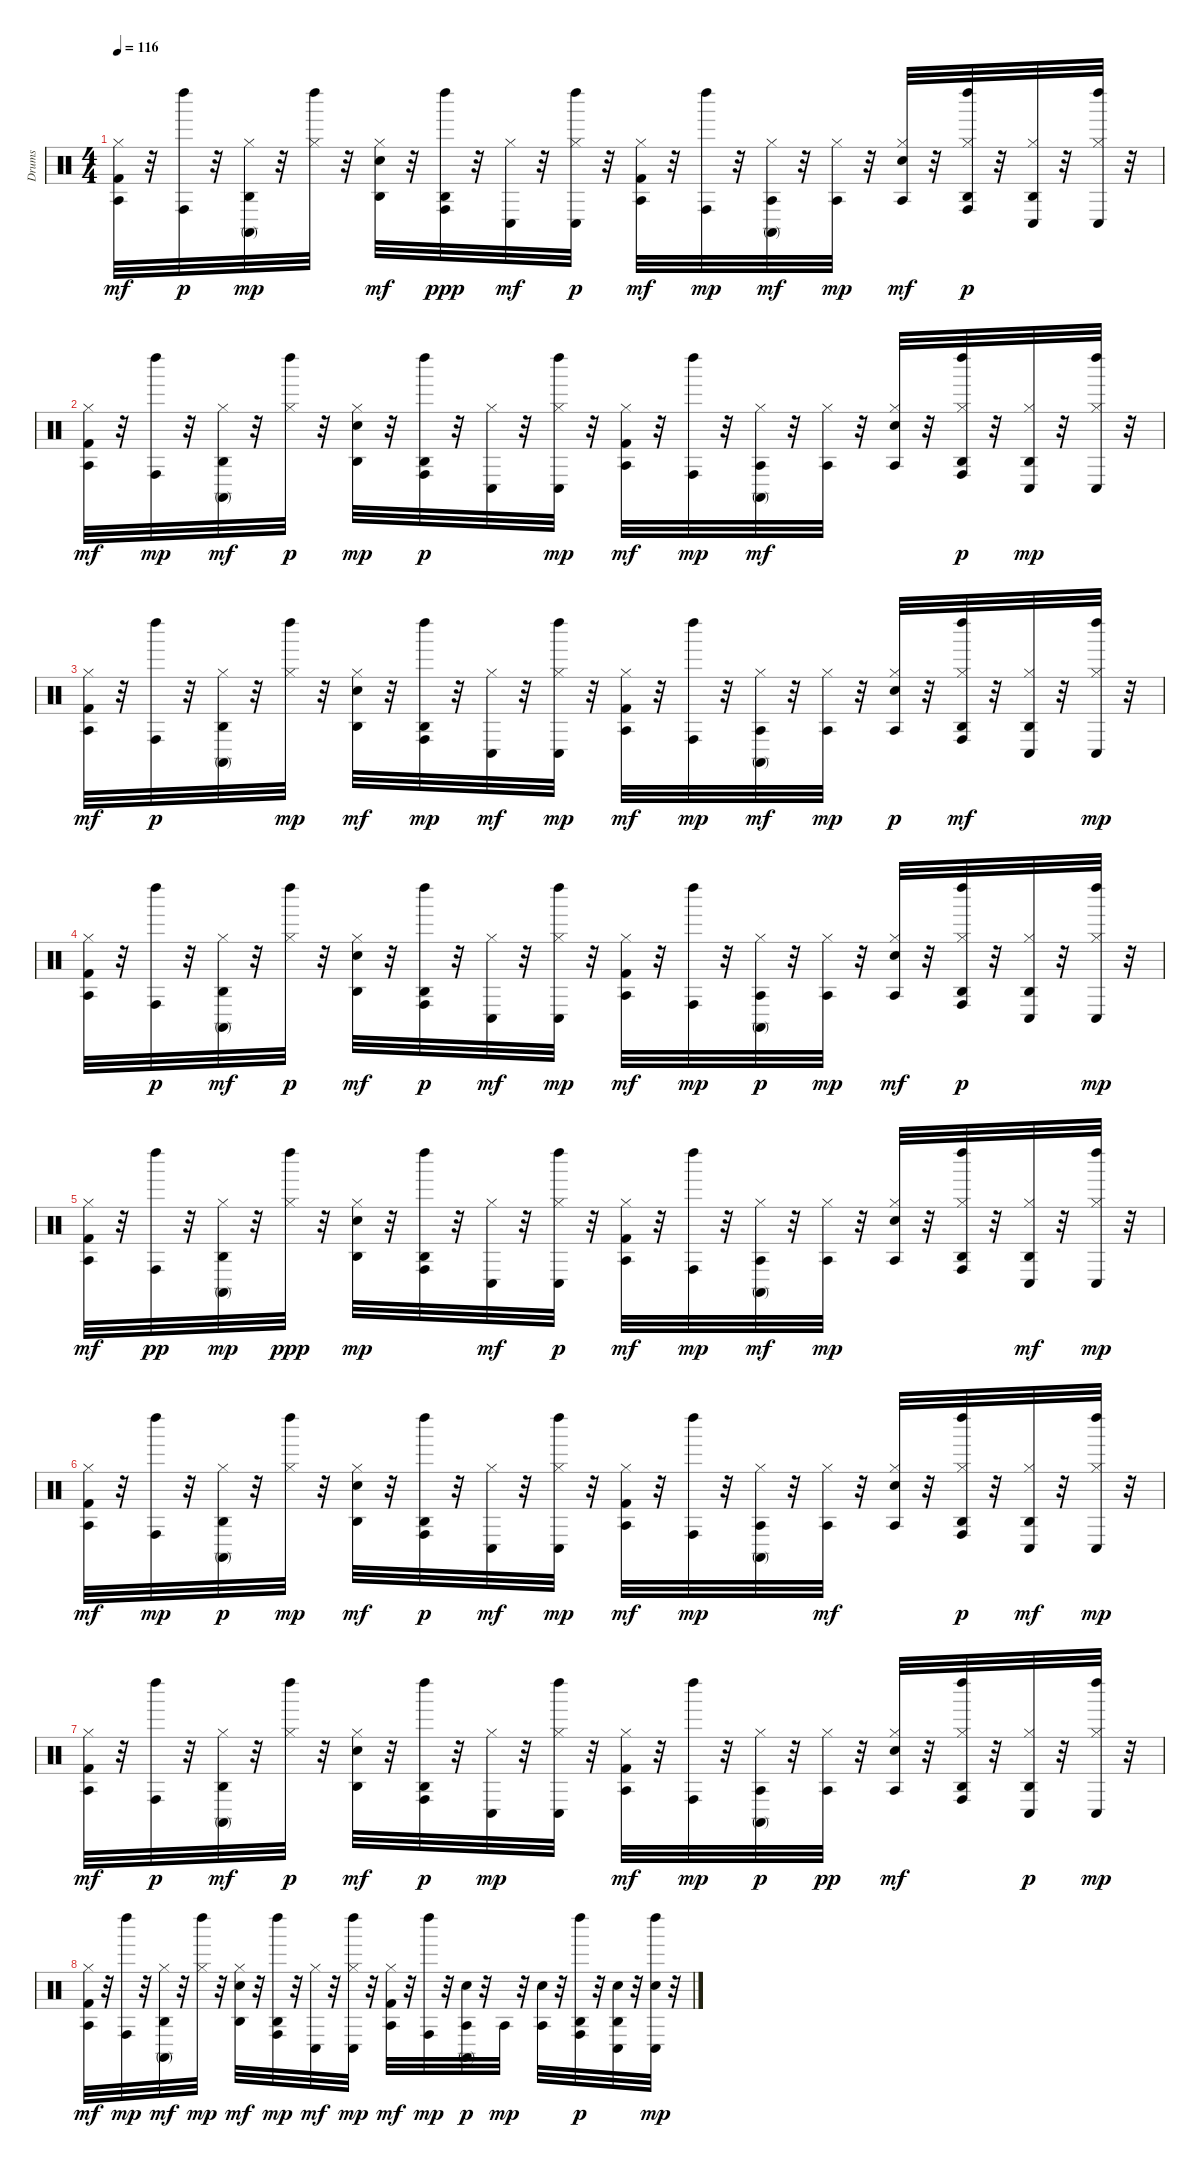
\track ("Drums" "Drums") {instrument percussion}
\staff {score}
\articulation defaults
\ts (4 4)
\tempo 116
\clef neutral
\ks c
("Hi-Hat (closed)" "Agogo tow (hit)" "Kick (hit) 2").32{dy mf} r.32 ("Left Maraca (hit)" "Conga high (hit)").32{dy p} r.32 ("Agogo high (hit)" "Hi-Hat (closed)" "Conga high (mute)").32{dy mp} r.32 ("Left Maraca (hit)" "Hi-Hat (closed)").32 r.32 ("Agogo high (hit)" "Snare (hit) 2" "Hi-Hat (closed)").32{dy mf} r.32 ("Agogo high (hit)" "Conga high (hit)" "Left Maraca (hit)").32{dy ppp} r.32 ("Conga low (hit)" "Hi-Hat (closed)").32{dy mf} r.32 ("Conga low (hit)" "Hi-Hat (closed)" "Left Maraca (hit)").32{dy p} r.32 ("Kick (hit) 2" "Agogo tow (hit)" "Hi-Hat (closed)").32{dy mf} r.32 ("Left Maraca (hit)" "Conga high (hit)").32{dy mp} r.32 ("Conga high (mute)" "Hi-Hat (closed)" "Agogo tow (hit)").32{dy mf} r.32 ("Hi-Hat (closed)" "Agogo tow (hit)").32{dy mp} r.32 ("Agogo tow (hit)" "Snare (hit) 2" "Hi-Hat (closed)").32{dy mf} r.32 ("Agogo high (hit)" "Hi-Hat (closed)" "Conga high (hit)" "Left Maraca (hit)").32{dy p} r.32 ("Agogo high (hit)" "Hi-Hat (closed)" "Conga low (hit)").32 r.32 ("Hi-Hat (closed)" "Conga low (hit)" "Left Maraca (hit)").32 r.32 |
("Kick (hit) 2" "Agogo tow (hit)" "Hi-Hat (closed)").32{dy mf} r.32 ("Left Maraca (hit)" "Conga high (hit)").32{dy mp} r.32 ("Agogo high (hit)" "Conga high (mute)" "Hi-Hat (closed)").32{dy mf} r.32 ("Hi-Hat (closed)" "Left Maraca (hit)").32{dy p} r.32 ("Hi-Hat (closed)" "Snare (hit) 2" "Agogo high (hit)").32{dy mp} r.32 ("Conga high (hit)" "Agogo high (hit)" "Left Maraca (hit)").32{dy p} r.32 ("Hi-Hat (closed)" "Conga low (hit)").32 r.32 ("Left Maraca (hit)" "Conga low (hit)" "Hi-Hat (closed)").32{dy mp} r.32 ("Kick (hit) 2" "Hi-Hat (closed)" "Agogo tow (hit)").32{dy mf} r.32 ("Left Maraca (hit)" "Conga high (hit)").32{dy mp} r.32 ("Agogo tow (hit)" "Conga high (mute)" "Hi-Hat (closed)").32{dy mf} r.32 ("Hi-Hat (closed)" "Agogo tow (hit)").32 r.32 ("Hi-Hat (closed)" "Agogo tow (hit)" "Snare (hit) 2").32 r.32 ("Agogo high (hit)" "Hi-Hat (closed)" "Left Maraca (hit)" "Conga high (hit)").32{dy p} r.32 ("Hi-Hat (closed)" "Agogo high (hit)" "Conga low (hit)").32{dy mp} r.32 ("Conga low (hit)" "Left Maraca (hit)" "Hi-Hat (closed)").32 r.32 |
("Kick (hit) 2" "Agogo tow (hit)" "Hi-Hat (closed)").32{dy mf} r.32 ("Conga high (hit)" "Left Maraca (hit)").32{dy p} r.32 ("Hi-Hat (closed)" "Agogo high (hit)" "Conga high (mute)").32 r.32 ("Left Maraca (hit)" "Hi-Hat (closed)").32{dy mp} r.32 ("Agogo high (hit)" "Snare (hit) 2" "Hi-Hat (closed)").32{dy mf} r.32 ("Left Maraca (hit)" "Agogo high (hit)" "Conga high (hit)").32{dy mp} r.32 ("Conga low (hit)" "Hi-Hat (closed)").32{dy mf} r.32 ("Conga low (hit)" "Left Maraca (hit)" "Hi-Hat (closed)").32{dy mp} r.32 ("Agogo tow (hit)" "Kick (hit) 2" "Hi-Hat (closed)").32{dy mf} r.32 ("Conga high (hit)" "Left Maraca (hit)").32{dy mp} r.32 ("Conga high (mute)" "Agogo tow (hit)" "Hi-Hat (closed)").32{dy mf} r.32 ("Agogo tow (hit)" "Hi-Hat (closed)").32{dy mp} r.32 ("Hi-Hat (closed)" "Agogo tow (hit)" "Snare (hit) 2").32{dy p} r.32 ("Left Maraca (hit)" "Conga high (hit)" "Hi-Hat (closed)" "Agogo high (hit)").32{dy mf} r.32 ("Agogo high (hit)" "Conga low (hit)" "Hi-Hat (closed)").32 r.32 ("Hi-Hat (closed)" "Conga low (hit)" "Left Maraca (hit)").32{dy mp} r.32 |
("Hi-Hat (closed)" "Kick (hit) 2" "Agogo tow (hit)").32 r.32 ("Conga high (hit)" "Left Maraca (hit)").32{dy p} r.32 ("Agogo high (hit)" "Conga high (mute)" "Hi-Hat (closed)").32{dy mf} r.32 ("Hi-Hat (closed)" "Left Maraca (hit)").32{dy p} r.32 ("Snare (hit) 2" "Agogo high (hit)" "Hi-Hat (closed)").32{dy mf} r.32 ("Agogo high (hit)" "Conga high (hit)" "Left Maraca (hit)").32{dy p} r.32 ("Conga low (hit)" "Hi-Hat (closed)").32{dy mf} r.32 ("Hi-Hat (closed)" "Conga low (hit)" "Left Maraca (hit)").32{dy mp} r.32 ("Kick (hit) 2" "Hi-Hat (closed)" "Agogo tow (hit)").32{dy mf} r.32 ("Conga high (hit)" "Left Maraca (hit)").32{dy mp} r.32 ("Hi-Hat (closed)" "Agogo tow (hit)" "Conga high (mute)").32{dy p} r.32 ("Agogo tow (hit)" "Hi-Hat (closed)").32{dy mp} r.32 ("Agogo tow (hit)" "Hi-Hat (closed)" "Snare (hit) 2").32{dy mf} r.32 ("Hi-Hat (closed)" "Agogo high (hit)" "Left Maraca (hit)" "Conga high (hit)").32{dy p} r.32 ("Hi-Hat (closed)" "Conga low (hit)" "Agogo high (hit)").32 r.32 ("Left Maraca (hit)" "Conga low (hit)" "Hi-Hat (closed)").32{dy mp} r.32 |
("Agogo tow (hit)" "Kick (hit) 2" "Hi-Hat (closed)").32{dy mf} r.32 ("Conga high (hit)" "Left Maraca (hit)").32{dy pp} r.32 ("Agogo high (hit)" "Hi-Hat (closed)" "Conga high (mute)").32{dy mp} r.32 ("Hi-Hat (closed)" "Left Maraca (hit)").32{dy ppp} r.32 ("Hi-Hat (closed)" "Snare (hit) 2" "Agogo high (hit)").32{dy mp} r.32 ("Conga high (hit)" "Left Maraca (hit)" "Agogo high (hit)").32 r.32 ("Conga low (hit)" "Hi-Hat (closed)").32{dy mf} r.32 ("Hi-Hat (closed)" "Conga low (hit)" "Left Maraca (hit)").32{dy p} r.32 ("Kick (hit) 2" "Hi-Hat (closed)" "Agogo tow (hit)").32{dy mf} r.32 ("Left Maraca (hit)" "Conga high (hit)").32{dy mp} r.32 ("Conga high (mute)" "Agogo tow (hit)" "Hi-Hat (closed)").32{dy mf} r.32 ("Hi-Hat (closed)" "Agogo tow (hit)").32{dy mp} r.32 ("Snare (hit) 2" "Hi-Hat (closed)" "Agogo tow (hit)").32 r.32 ("Left Maraca (hit)" "Conga high (hit)" "Agogo high (hit)" "Hi-Hat (closed)").32 r.32 ("Agogo high (hit)" "Conga low (hit)" "Hi-Hat (closed)").32{dy mf} r.32 ("Conga low (hit)" "Left Maraca (hit)" "Hi-Hat (closed)").32{dy mp} r.32 |
("Hi-Hat (closed)" "Agogo tow (hit)" "Kick (hit) 2").32{dy mf} r.32 ("Left Maraca (hit)" "Conga high (hit)").32{dy mp} r.32 ("Hi-Hat (closed)" "Agogo high (hit)" "Conga high (mute)").32{dy p} r.32 ("Left Maraca (hit)" "Hi-Hat (closed)").32{dy mp} r.32 ("Snare (hit) 2" "Agogo high (hit)" "Hi-Hat (closed)").32{dy mf} r.32 ("Agogo high (hit)" "Conga high (hit)" "Left Maraca (hit)").32{dy p} r.32 ("Conga low (hit)" "Hi-Hat (closed)").32{dy mf} r.32 ("Conga low (hit)" "Hi-Hat (closed)" "Left Maraca (hit)").32{dy mp} r.32 ("Agogo tow (hit)" "Hi-Hat (closed)" "Kick (hit) 2").32{dy mf} r.32 ("Conga high (hit)" "Left Maraca (hit)").32{dy mp} r.32 ("Hi-Hat (closed)" "Agogo tow (hit)" "Conga high (mute)").32 r.32 ("Hi-Hat (closed)" "Agogo tow (hit)").32{dy mf} r.32 ("Snare (hit) 2" "Hi-Hat (closed)" "Agogo tow (hit)").32 r.32 ("Hi-Hat (closed)" "Agogo high (hit)" "Conga high (hit)" "Left Maraca (hit)").32{dy p} r.32 ("Conga low (hit)" "Agogo high (hit)" "Hi-Hat (closed)").32{dy mf} r.32 ("Left Maraca (hit)" "Hi-Hat (closed)" "Conga low (hit)").32{dy mp} r.32 |
("Hi-Hat (closed)" "Agogo tow (hit)" "Kick (hit) 2").32{dy mf} r.32 ("Conga high (hit)" "Left Maraca (hit)").32{dy p} r.32 ("Conga high (mute)" "Hi-Hat (closed)" "Agogo high (hit)").32{dy mf} r.32 ("Hi-Hat (closed)" "Left Maraca (hit)").32{dy p} r.32 ("Agogo high (hit)" "Hi-Hat (closed)" "Snare (hit) 2").32{dy mf} r.32 ("Conga high (hit)" "Left Maraca (hit)" "Agogo high (hit)").32{dy p} r.32 ("Hi-Hat (closed)" "Conga low (hit)").32{dy mp} r.32 ("Left Maraca (hit)" "Hi-Hat (closed)" "Conga low (hit)").32 r.32 ("Hi-Hat (closed)" "Agogo tow (hit)" "Kick (hit) 2").32{dy mf} r.32 ("Conga high (hit)" "Left Maraca (hit)").32{dy mp} r.32 ("Hi-Hat (closed)" "Agogo tow (hit)" "Conga high (mute)").32{dy p} r.32 ("Hi-Hat (closed)" "Agogo tow (hit)").32{dy pp} r.32 ("Agogo tow (hit)" "Snare (hit) 2" "Hi-Hat (closed)").32{dy mf} r.32 ("Left Maraca (hit)" "Conga high (hit)" "Hi-Hat (closed)" "Agogo high (hit)").32 r.32 ("Agogo high (hit)" "Hi-Hat (closed)" "Conga low (hit)").32{dy p} r.32 ("Conga low (hit)" "Hi-Hat (closed)" "Left Maraca (hit)").32{dy mp} r.32 |
("Hi-Hat (closed)" "Agogo tow (hit)" "Kick (hit) 2").32{dy mf} r.32 ("Left Maraca (hit)" "Conga high (hit)").32{dy mp} r.32 ("Agogo high (hit)" "Conga high (mute)" "Hi-Hat (closed)").32{dy mf} r.32 ("Left Maraca (hit)" "Hi-Hat (closed)").32{dy mp} r.32 ("Hi-Hat (closed)" "Agogo high (hit)" "Snare (hit) 2").32{dy mf} r.32 ("Conga high (hit)" "Left Maraca (hit)" "Agogo high (hit)").32{dy mp} r.32 ("Conga low (hit)" "Hi-Hat (closed)").32{dy mf} r.32 ("Conga low (hit)" "Left Maraca (hit)" "Hi-Hat (closed)").32{dy mp} r.32 ("Kick (hit) 2" "Hi-Hat (closed)" "Agogo tow (hit)").32{dy mf} r.32 ("Conga high (hit)" "Left Maraca (hit)").32{dy mp} r.32 ("Snare (hit) 2" "Agogo tow (hit)" "Conga high (mute)").32{dy p} r.32 "Agogo tow (hit)".32{dy mp} r.32 ("Agogo tow (hit)" "Snare (hit) 2").32 r.32 ("Agogo high (hit)" "Left Maraca (hit)" "Conga high (hit)").32{dy p} r.32 ("Snare (hit) 2" "Conga low (hit)" "Agogo high (hit)").32 r.32 ("Conga low (hit)" "Snare (hit) 2" "Left Maraca (hit)").32{dy mp} r.32
